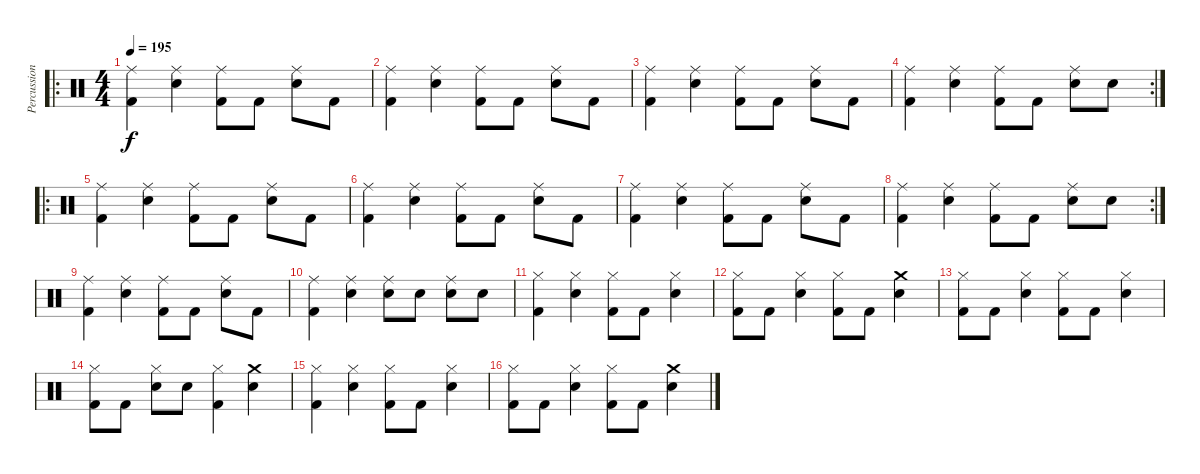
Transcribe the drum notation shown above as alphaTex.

\track ("Percussion" "Percussion") {instrument percussion}
\staff {score}
\articulation defaults
\ro
\ts (4 4)
\tempo 195
\clef neutral
\ks c
("Ride (middle)" "Kick (hit) 2").4{dy f} ("Ride (middle)" "Snare (hit) 2").4 ("Ride (middle)" "Kick (hit) 2").8 "Kick (hit) 2".8 ("Ride (middle)" "Snare (hit) 2").8 "Kick (hit) 2".8 |
("Ride (middle)" "Kick (hit) 2").4 ("Ride (middle)" "Snare (hit) 2").4 ("Ride (middle)" "Kick (hit) 2").8 "Kick (hit) 2".8 ("Ride (middle)" "Snare (hit) 2").8 "Kick (hit) 2".8 |
("Ride (middle)" "Kick (hit) 2").4 ("Ride (middle)" "Snare (hit) 2").4 ("Ride (middle)" "Kick (hit) 2").8 "Kick (hit) 2".8 ("Ride (middle)" "Snare (hit) 2").8 "Kick (hit) 2".8 |
\rc 2
("Ride (middle)" "Kick (hit) 2").4 ("Ride (middle)" "Snare (hit) 2").4 ("Ride (middle)" "Kick (hit) 2").8 "Kick (hit) 2".8 ("Ride (middle)" "Snare (hit) 2").8 "Snare (hit) 2".8 |
\ro
("Ride (middle)" "Kick (hit) 2").4 ("Ride (middle)" "Snare (hit) 2").4 ("Ride (middle)" "Kick (hit) 2").8 "Kick (hit) 2".8 ("Ride (middle)" "Snare (hit) 2").8 "Kick (hit) 2".8 |
("Ride (middle)" "Kick (hit) 2").4 ("Ride (middle)" "Snare (hit) 2").4 ("Ride (middle)" "Kick (hit) 2").8 "Kick (hit) 2".8 ("Ride (middle)" "Snare (hit) 2").8 "Kick (hit) 2".8 |
("Ride (middle)" "Kick (hit) 2").4 ("Ride (middle)" "Snare (hit) 2").4 ("Ride (middle)" "Kick (hit) 2").8 "Kick (hit) 2".8 ("Ride (middle)" "Snare (hit) 2").8 "Kick (hit) 2".8 |
\rc 2
("Ride (middle)" "Kick (hit) 2").4 ("Ride (middle)" "Snare (hit) 2").4 ("Ride (middle)" "Kick (hit) 2").8 "Kick (hit) 2".8 ("Ride (middle)" "Snare (hit) 2").8 "Snare (hit) 2".8 |
("Ride (middle)" "Kick (hit) 2").4 ("Ride (middle)" "Snare (hit) 2").4 ("Ride (middle)" "Kick (hit) 2").8 "Kick (hit) 2".8 ("Ride (middle)" "Snare (hit) 2").8 "Kick (hit) 2".8 |
("Ride (middle)" "Kick (hit) 2").4 ("Ride (middle)" "Snare (hit) 2").4 ("Ride (middle)" "Snare (hit) 2").8 "Snare (hit) 2".8 ("Ride (middle)" "Snare (hit) 2").8 "Snare (hit) 2".8 |
("Hi-Hat (closed)" "Kick (hit) 2").4 ("Hi-Hat (closed)" "Snare (hit) 2").4 ("Hi-Hat (closed)" "Kick (hit) 2").8 "Kick (hit) 2".8 ("Hi-Hat (closed)" "Snare (hit) 2").4 |
("Hi-Hat (closed)" "Kick (hit) 2").8 "Kick (hit) 2".8 ("Hi-Hat (closed)" "Snare (hit) 2").4 ("Hi-Hat (closed)" "Kick (hit) 2").8 "Kick (hit) 2".8 ("Crash medium (hit)" "Snare (hit) 2").4 |
("Hi-Hat (closed)" "Kick (hit) 2").8 "Kick (hit) 2".8 ("Hi-Hat (closed)" "Snare (hit) 2").4 ("Hi-Hat (closed)" "Kick (hit) 2").8 "Kick (hit) 2".8 ("Hi-Hat (closed)" "Snare (hit) 2").4 |
("Hi-Hat (closed)" "Kick (hit) 2").8 "Kick (hit) 2".8 ("Hi-Hat (closed)" "Snare (hit) 2").8 "Snare (hit) 2".8 ("Hi-Hat (closed)" "Kick (hit) 2").4 ("Crash medium (hit)" "Snare (hit) 2").4 |
("Hi-Hat (closed)" "Kick (hit) 2").4 ("Hi-Hat (closed)" "Snare (hit) 2").4 ("Hi-Hat (closed)" "Kick (hit) 2").8 "Kick (hit) 2".8 ("Hi-Hat (closed)" "Snare (hit) 2").4 |
("Hi-Hat (closed)" "Kick (hit) 2").8 "Kick (hit) 2".8 ("Hi-Hat (closed)" "Snare (hit) 2").4 ("Hi-Hat (closed)" "Kick (hit) 2").8 "Kick (hit) 2".8 ("Crash medium (hit)" "Snare (hit) 2").4
